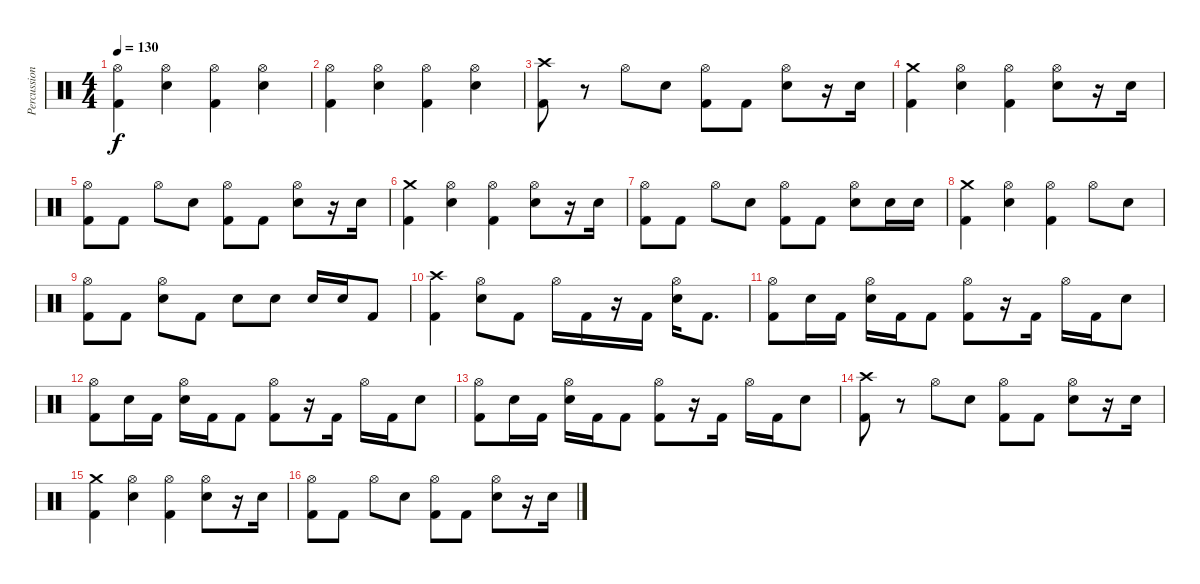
\track ("Percussion" "Percussion") {instrument percussion}
\staff {score}
\articulation defaults
\ts (4 4)
\tempo 130
\clef neutral
\ks c
("Hi-Hat (open)" "Kick (hit) 2").4{dy f} ("Hi-Hat (open)" "Electric Snare (hit)").4 ("Hi-Hat (open)" "Kick (hit) 2").4 ("Hi-Hat (open)" "Electric Snare (hit)").4 |
("Hi-Hat (open)" "Kick (hit) 2").4 ("Hi-Hat (open)" "Electric Snare (hit)").4 ("Hi-Hat (open)" "Kick (hit) 2").4 ("Hi-Hat (open)" "Electric Snare (hit)").4 |
("Crash high (hit)" "Kick (hit) 2").8 r.8 "Hi-Hat (open)".8 "Electric Snare (hit)".8 ("Hi-Hat (open)" "Kick (hit) 2").8 "Kick (hit) 2".8 ("Hi-Hat (open)" "Electric Snare (hit)").8 r.16 "Electric Snare (hit)".16 |
("Crash medium (hit)" "Kick (hit) 2").4 ("Hi-Hat (open)" "Electric Snare (hit)").4 ("Hi-Hat (open)" "Kick (hit) 2").4 ("Hi-Hat (open)" "Electric Snare (hit)").8 r.16 "Electric Snare (hit)".16 |
("Hi-Hat (open)" "Kick (hit) 2").8 "Kick (hit) 2".8 "Hi-Hat (open)".8 "Electric Snare (hit)".8 ("Hi-Hat (open)" "Kick (hit) 2").8 "Kick (hit) 2".8 ("Hi-Hat (open)" "Electric Snare (hit)").8 r.16 "Electric Snare (hit)".16 |
("Crash medium (hit)" "Kick (hit) 2").4 ("Hi-Hat (open)" "Electric Snare (hit)").4 ("Hi-Hat (open)" "Kick (hit) 2").4 ("Hi-Hat (open)" "Electric Snare (hit)").8 r.16 "Electric Snare (hit)".16 |
("Hi-Hat (open)" "Kick (hit) 2").8 "Kick (hit) 2".8 "Hi-Hat (open)".8 "Electric Snare (hit)".8 ("Hi-Hat (open)" "Kick (hit) 2").8 "Kick (hit) 2".8 ("Hi-Hat (open)" "Electric Snare (hit)").8 "Electric Snare (hit)".16 "Electric Snare (hit)".16 |
("Crash medium (hit)" "Kick (hit) 2").4 ("Hi-Hat (open)" "Electric Snare (hit)").4 ("Hi-Hat (open)" "Kick (hit) 2").4 "Hi-Hat (open)".8 "Electric Snare (hit)".8 |
("Hi-Hat (open)" "Kick (hit) 2").8 "Kick (hit) 2".8 ("Hi-Hat (open)" "Electric Snare (hit)").8 "Kick (hit) 2".8 "Electric Snare (hit)".8 "Electric Snare (hit)".8 "Electric Snare (hit)".16 "Electric Snare (hit)".16 "Kick (hit) 2".8 |
("Crash high (hit)" "Kick (hit) 2").4 ("Hi-Hat (open)" "Electric Snare (hit)").8 "Kick (hit) 2".8 "Hi-Hat (open)".16 "Kick (hit) 2".16 r.16 "Kick (hit) 2".16 ("Hi-Hat (open)" "Electric Snare (hit)").16 "Kick (hit) 2".8{d} |
("Hi-Hat (open)" "Kick (hit) 2").8 "Electric Snare (hit)".16 "Kick (hit) 2".16 ("Hi-Hat (open)" "Electric Snare (hit)").16 "Kick (hit) 2".16 "Kick (hit) 2".8 ("Hi-Hat (open)" "Kick (hit) 2").8 r.16 "Kick (hit) 2".16 "Hi-Hat (open)".16 "Kick (hit) 2".16 "Electric Snare (hit)".8 |
("Hi-Hat (open)" "Kick (hit) 2").8 "Electric Snare (hit)".16 "Kick (hit) 2".16 ("Hi-Hat (open)" "Electric Snare (hit)").16 "Kick (hit) 2".16 "Kick (hit) 2".8 ("Hi-Hat (open)" "Kick (hit) 2").8 r.16 "Kick (hit) 2".16 "Hi-Hat (open)".16 "Kick (hit) 2".16 "Electric Snare (hit)".8 |
("Hi-Hat (open)" "Kick (hit) 2").8 "Electric Snare (hit)".16 "Kick (hit) 2".16 ("Hi-Hat (open)" "Electric Snare (hit)").16 "Kick (hit) 2".16 "Kick (hit) 2".8 ("Hi-Hat (open)" "Kick (hit) 2").8 r.16 "Kick (hit) 2".16 "Hi-Hat (open)".16 "Kick (hit) 2".16 "Electric Snare (hit)".8 |
("Crash high (hit)" "Kick (hit) 2").8 r.8 "Hi-Hat (open)".8 "Electric Snare (hit)".8 ("Hi-Hat (open)" "Kick (hit) 2").8 "Kick (hit) 2".8 ("Hi-Hat (open)" "Electric Snare (hit)").8 r.16 "Electric Snare (hit)".16 |
("Crash medium (hit)" "Kick (hit) 2").4 ("Hi-Hat (open)" "Electric Snare (hit)").4 ("Hi-Hat (open)" "Kick (hit) 2").4 ("Hi-Hat (open)" "Electric Snare (hit)").8 r.16 "Electric Snare (hit)".16 |
("Hi-Hat (open)" "Kick (hit) 2").8 "Kick (hit) 2".8 "Hi-Hat (open)".8 "Electric Snare (hit)".8 ("Hi-Hat (open)" "Kick (hit) 2").8 "Kick (hit) 2".8 ("Hi-Hat (open)" "Electric Snare (hit)").8 r.16 "Electric Snare (hit)".16
